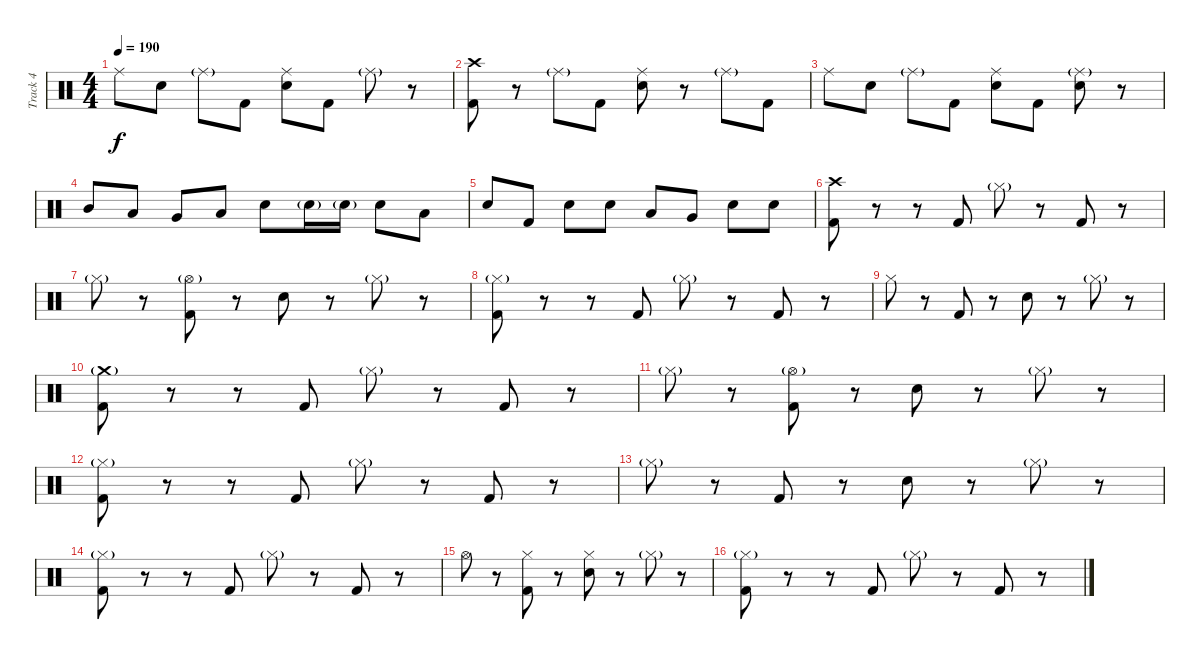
\track ("Track 4" "Track 4") {instrument percussion}
\staff {score}
\articulation defaults
\ts (4 4)
\tempo 190
\clef neutral
\ks c "Ride (middle)".8{dy f} "Electric Snare (hit)".8 "Ride (middle)"{g}.8 "Kick (hit) 2".8
("Ride (middle)" "Electric Snare (hit)").8 "Kick (hit) 2".8 "Ride (middle)"{g}.8 r.8 |
("Crash high (hit)" "Kick (hit) 2").8 r.8 "Ride (middle)"{g}.8 "Kick (hit) 2".8 ("Ride (middle)" "Electric Snare (hit)").8 r.8 "Ride (middle)"{g}.8 "Kick (hit) 2".8 |
"Ride (middle)".8 "Electric Snare (hit)".8 "Ride (middle)"{g}.8 "Kick (hit) 2".8 ("Ride (middle)" "Electric Snare (hit)").8 "Kick (hit) 2".8 ("Ride (middle)"{g} "Electric Snare (hit)").8 r.8 |
"Mid Tom (hit)".8 "Low Tom (hit)".8 "Very Low Tom (hit)".8 "Low Floor Tom (hit)".8 "Electric Snare (hit)".8 "Electric Snare (hit)"{g}.16 "Electric Snare (hit)"{g}.16 "Electric Snare (hit)".8 "Low Tom (hit)".8 |
"Electric Snare (hit)".8 "Kick (hit) 2".8 "Electric Snare (hit)".8 "Electric Snare (hit)".8 "Low Tom (hit)".8 "Very Low Tom (hit)".8 "Electric Snare (hit)".8 "Electric Snare (hit)".8 |
("Crash high (hit)" "Kick (hit) 2").8 r.8 r.8 "Kick (hit) 2".8 "Hi-Hat (closed)"{g}.8 r.8 "Kick (hit) 2".8 r.8 |
"Hi-Hat (closed)"{g}.8 r.8 ("Hi-Hat (open)"{g} "Kick (hit) 2").8 r.8 "Electric Snare (hit)".8 r.8 "Hi-Hat (closed)"{g}.8 r.8 |
("Hi-Hat (closed)"{g} "Kick (hit) 2").8 r.8 r.8 "Kick (hit) 2".8 "Hi-Hat (closed)"{g}.8 r.8 "Kick (hit) 2".8 r.8 |
"Hi-Hat (closed)".8 r.8 "Kick (hit) 2".8 r.8 "Electric Snare (hit)".8 r.8 "Hi-Hat (closed)"{g}.8 r.8 |
("Crash medium (hit)"{g} "Kick (hit) 2").8 r.8 r.8 "Kick (hit) 2".8 "Hi-Hat (closed)"{g}.8 r.8 "Kick (hit) 2".8 r.8 |
"Hi-Hat (closed)"{g}.8 r.8 ("Hi-Hat (open)"{g} "Kick (hit) 2").8 r.8 "Electric Snare (hit)".8 r.8 "Hi-Hat (closed)"{g}.8 r.8 |
("Hi-Hat (closed)"{g} "Kick (hit) 2").8 r.8 r.8 "Kick (hit) 2".8 "Hi-Hat (closed)"{g}.8 r.8 "Kick (hit) 2".8 r.8 |
"Hi-Hat (closed)"{g}.8 r.8 "Kick (hit) 2".8 r.8 "Electric Snare (hit)".8 r.8 "Hi-Hat (closed)"{g}.8 r.8 |
("Hi-Hat (closed)"{g} "Kick (hit) 2").8 r.8 r.8 "Kick (hit) 2".8 "Hi-Hat (closed)"{g}.8 r.8 "Kick (hit) 2".8 r.8 |
"Hi-Hat (open)".8 r.8 ("Hi-Hat (closed)" "Kick (hit) 2").8 r.8 ("Hi-Hat (closed)" "Electric Snare (hit)").8 r.8 "Hi-Hat (closed)"{g}.8 r.8 |
("Hi-Hat (closed)"{g} "Kick (hit) 2").8 r.8 r.8 "Kick (hit) 2".8 "Hi-Hat (closed)"{g}.8 r.8 "Kick (hit) 2".8 r.8
